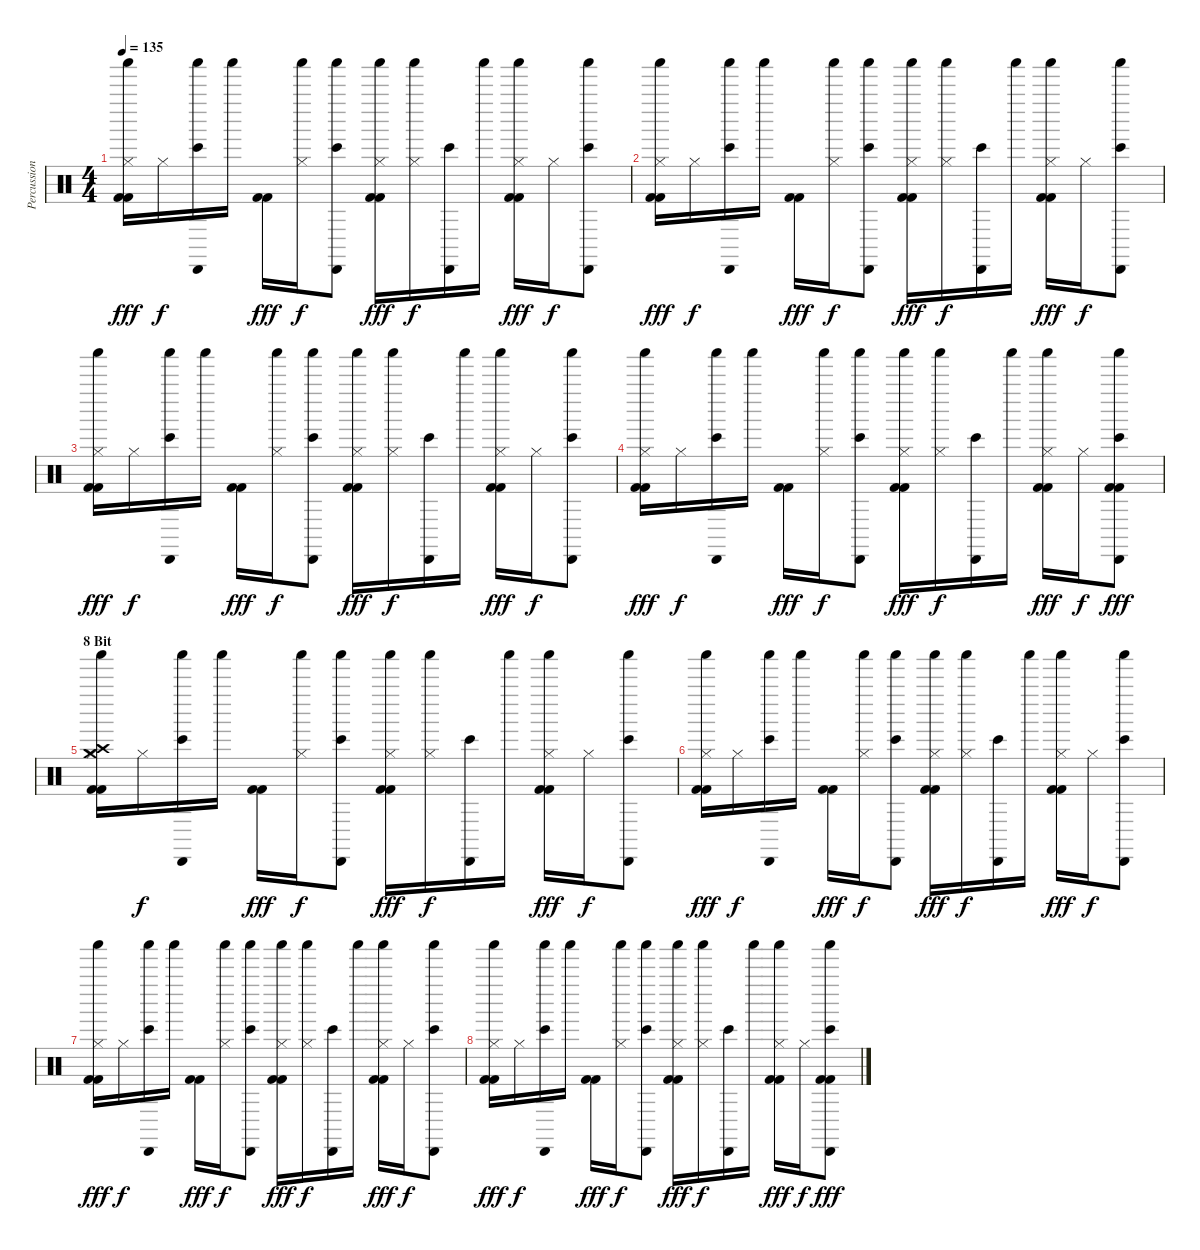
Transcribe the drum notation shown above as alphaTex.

\track ("Percussion" "Percussion") {instrument percussion}
\staff {score}
\articulation defaults
\ts (4 4)
\tempo 135
\clef neutral
\ks c
("Hi-Hat (closed)" "Kick (hit) 2" "Kick (hit) 2" "Shaker (hit)").16{dy fff} "Hi-Hat (closed)".16{dy f} ("Cabasa (hit)" "Bongo High (hit)" "Shaker (hit)").16 "Shaker (hit)".16 ("Kick (hit) 2" "Kick (hit) 2").16{dy fff} ("Hi-Hat (closed)" "Shaker (hit)").16{dy f} ("Cabasa (hit)" "Bongo High (hit)" "Shaker (hit)").8 ("Hi-Hat (closed)" "Kick (hit) 2" "Kick (hit) 2" "Shaker (hit)").16{dy fff} ("Hi-Hat (closed)" "Shaker (hit)").16{dy f} ("Cabasa (hit)" "Bongo High (hit)").16 "Shaker (hit)".16 ("Hi-Hat (closed)" "Kick (hit) 2" "Kick (hit) 2" "Shaker (hit)").16{dy fff} "Hi-Hat (closed)".16{dy f} ("Cabasa (hit)" "Bongo High (hit)" "Shaker (hit)").8 |
("Hi-Hat (closed)" "Kick (hit) 2" "Kick (hit) 2" "Shaker (hit)").16{dy fff} "Hi-Hat (closed)".16{dy f} ("Cabasa (hit)" "Bongo High (hit)" "Shaker (hit)").16 "Shaker (hit)".16 ("Kick (hit) 2" "Kick (hit) 2").16{dy fff} ("Hi-Hat (closed)" "Shaker (hit)").16{dy f} ("Cabasa (hit)" "Bongo High (hit)" "Shaker (hit)").8 ("Hi-Hat (closed)" "Kick (hit) 2" "Kick (hit) 2" "Shaker (hit)").16{dy fff} ("Hi-Hat (closed)" "Shaker (hit)").16{dy f} ("Cabasa (hit)" "Bongo High (hit)").16 "Shaker (hit)".16 ("Hi-Hat (closed)" "Kick (hit) 2" "Kick (hit) 2" "Shaker (hit)").16{dy fff} "Hi-Hat (closed)".16{dy f} ("Cabasa (hit)" "Bongo High (hit)" "Shaker (hit)").8 |
("Hi-Hat (closed)" "Kick (hit) 2" "Kick (hit) 2" "Shaker (hit)").16{dy fff} "Hi-Hat (closed)".16{dy f} ("Cabasa (hit)" "Bongo High (hit)" "Shaker (hit)").16 "Shaker (hit)".16 ("Kick (hit) 2" "Kick (hit) 2").16{dy fff} ("Hi-Hat (closed)" "Shaker (hit)").16{dy f} ("Cabasa (hit)" "Bongo High (hit)" "Shaker (hit)").8 ("Hi-Hat (closed)" "Kick (hit) 2" "Kick (hit) 2" "Shaker (hit)").16{dy fff} ("Hi-Hat (closed)" "Shaker (hit)").16{dy f} ("Cabasa (hit)" "Bongo High (hit)").16 "Shaker (hit)".16 ("Hi-Hat (closed)" "Kick (hit) 2" "Kick (hit) 2" "Shaker (hit)").16{dy fff} "Hi-Hat (closed)".16{dy f} ("Cabasa (hit)" "Bongo High (hit)" "Shaker (hit)").8 |
("Hi-Hat (closed)" "Kick (hit) 2" "Kick (hit) 2" "Shaker (hit)").16{dy fff} "Hi-Hat (closed)".16{dy f} ("Cabasa (hit)" "Bongo High (hit)" "Shaker (hit)").16 "Shaker (hit)".16 ("Kick (hit) 2" "Kick (hit) 2").16{dy fff} ("Hi-Hat (closed)" "Shaker (hit)").16{dy f} ("Cabasa (hit)" "Bongo High (hit)" "Shaker (hit)").8 ("Hi-Hat (closed)" "Kick (hit) 2" "Kick (hit) 2" "Shaker (hit)").16{dy fff} ("Hi-Hat (closed)" "Shaker (hit)").16{dy f} ("Cabasa (hit)" "Bongo High (hit)").16 "Shaker (hit)".16 ("Hi-Hat (closed)" "Kick (hit) 2" "Kick (hit) 2" "Shaker (hit)").16{dy fff} "Hi-Hat (closed)".16{dy f} ("Cabasa (hit)" "Bongo High (hit)" "Kick (hit) 2" "Kick (hit) 2" "Shaker (hit)").8{dy fff} |
\section ("" "8 Bit")
("Crash medium (hit)" "Hi-Hat (closed)" "Crash high (hit)" "Kick (hit) 2" "Kick (hit) 2" "Shaker (hit)").16 "Hi-Hat (closed)".16{dy f} ("Cabasa (hit)" "Bongo High (hit)" "Shaker (hit)").16 "Shaker (hit)".16 ("Kick (hit) 2" "Kick (hit) 2").16{dy fff} ("Hi-Hat (closed)" "Shaker (hit)").16{dy f} ("Cabasa (hit)" "Bongo High (hit)" "Shaker (hit)").8 ("Hi-Hat (closed)" "Kick (hit) 2" "Kick (hit) 2" "Shaker (hit)").16{dy fff} ("Hi-Hat (closed)" "Shaker (hit)").16{dy f} ("Cabasa (hit)" "Bongo High (hit)").16 "Shaker (hit)".16 ("Hi-Hat (closed)" "Kick (hit) 2" "Kick (hit) 2" "Shaker (hit)").16{dy fff} "Hi-Hat (closed)".16{dy f} ("Cabasa (hit)" "Bongo High (hit)" "Shaker (hit)").8 |
("Hi-Hat (closed)" "Kick (hit) 2" "Kick (hit) 2" "Shaker (hit)").16{dy fff} "Hi-Hat (closed)".16{dy f} ("Cabasa (hit)" "Bongo High (hit)" "Shaker (hit)").16 "Shaker (hit)".16 ("Kick (hit) 2" "Kick (hit) 2").16{dy fff} ("Hi-Hat (closed)" "Shaker (hit)").16{dy f} ("Cabasa (hit)" "Bongo High (hit)" "Shaker (hit)").8 ("Hi-Hat (closed)" "Kick (hit) 2" "Kick (hit) 2" "Shaker (hit)").16{dy fff} ("Hi-Hat (closed)" "Shaker (hit)").16{dy f} ("Cabasa (hit)" "Bongo High (hit)").16 "Shaker (hit)".16 ("Hi-Hat (closed)" "Kick (hit) 2" "Kick (hit) 2" "Shaker (hit)").16{dy fff} "Hi-Hat (closed)".16{dy f} ("Cabasa (hit)" "Bongo High (hit)" "Shaker (hit)").8 |
("Hi-Hat (closed)" "Kick (hit) 2" "Kick (hit) 2" "Shaker (hit)").16{dy fff} "Hi-Hat (closed)".16{dy f} ("Cabasa (hit)" "Bongo High (hit)" "Shaker (hit)").16 "Shaker (hit)".16 ("Kick (hit) 2" "Kick (hit) 2").16{dy fff} ("Hi-Hat (closed)" "Shaker (hit)").16{dy f} ("Cabasa (hit)" "Bongo High (hit)" "Shaker (hit)").8 ("Hi-Hat (closed)" "Kick (hit) 2" "Kick (hit) 2" "Shaker (hit)").16{dy fff} ("Hi-Hat (closed)" "Shaker (hit)").16{dy f} ("Cabasa (hit)" "Bongo High (hit)").16 "Shaker (hit)".16 ("Hi-Hat (closed)" "Kick (hit) 2" "Kick (hit) 2" "Shaker (hit)").16{dy fff} "Hi-Hat (closed)".16{dy f} ("Cabasa (hit)" "Bongo High (hit)" "Shaker (hit)").8 |
("Hi-Hat (closed)" "Kick (hit) 2" "Kick (hit) 2" "Shaker (hit)").16{dy fff} "Hi-Hat (closed)".16{dy f} ("Cabasa (hit)" "Bongo High (hit)" "Shaker (hit)").16 "Shaker (hit)".16 ("Kick (hit) 2" "Kick (hit) 2").16{dy fff} ("Hi-Hat (closed)" "Shaker (hit)").16{dy f} ("Cabasa (hit)" "Bongo High (hit)" "Shaker (hit)").8 ("Hi-Hat (closed)" "Kick (hit) 2" "Kick (hit) 2" "Shaker (hit)").16{dy fff} ("Hi-Hat (closed)" "Shaker (hit)").16{dy f} ("Cabasa (hit)" "Bongo High (hit)").16 "Shaker (hit)".16 ("Hi-Hat (closed)" "Kick (hit) 2" "Kick (hit) 2" "Shaker (hit)").16{dy fff} "Hi-Hat (closed)".16{dy f} ("Cabasa (hit)" "Bongo High (hit)" "Kick (hit) 2" "Kick (hit) 2" "Shaker (hit)").8{dy fff}
